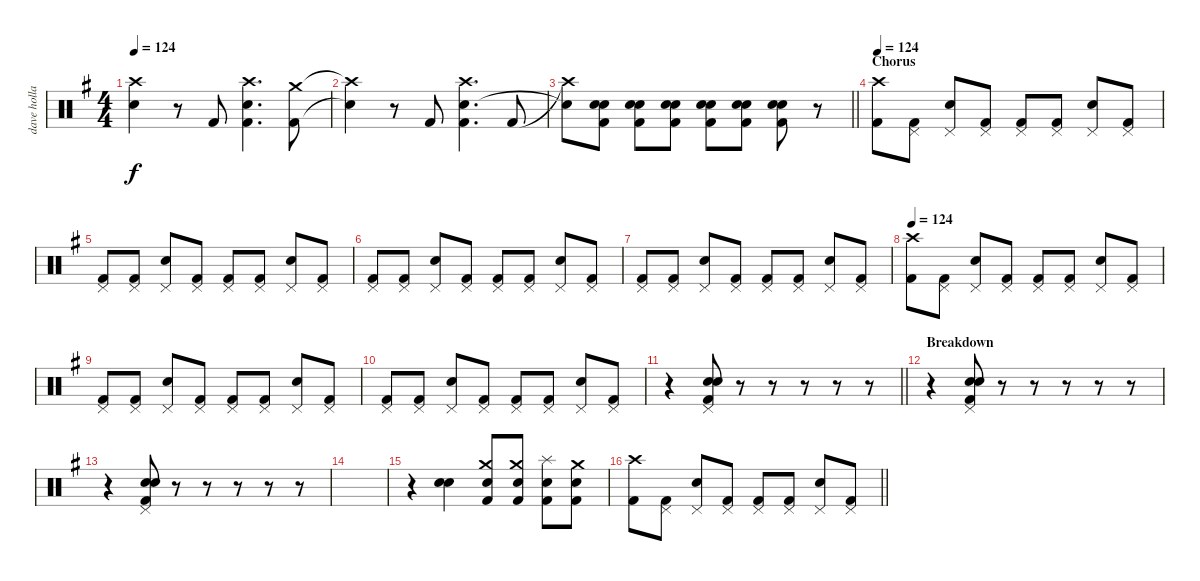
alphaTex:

\track ("dave holland" "dave holla") {instrument percussion}
\staff {score}
\articulation defaults
\ts (4 4)
\tempo 124
\clef neutral
\ks g
("Crash high (hit)"{t} "Snare (hit) 2"{t}).4{dy f} r.8 "Kick (hit) 2".8 ("Crash high (hit)" "Snare (hit) 2" "Kick (hit) 2").4{d} ("Crash medium (hit)" "Kick (hit) 2").8 |
("Crash high (hit)"{t} "Snare (hit) 2"{t}).4 r.8 "Kick (hit) 2".8 ("Crash high (hit)" "Snare (hit) 2" "Kick (hit) 2").4{d} "Kick (hit) 2".8 |
\barLineRight lightlight
("Crash high (hit)"{t} "Snare (hit) 2"{t}).8 ("Electric Snare (hit)" "Snare (hit) 2" "Kick (hit) 2").8 ("Electric Snare (hit)" "Snare (hit) 2" "Kick (hit) 2").8 ("Electric Snare (hit)" "Snare (hit) 2" "Kick (hit) 2").8 ("Electric Snare (hit)" "Snare (hit) 2" "Kick (hit) 2").8 ("Electric Snare (hit)" "Snare (hit) 2" "Kick (hit) 2").8 ("Electric Snare (hit)" "Snare (hit) 2" "Kick (hit) 2").8 r.8 |
\section ("" "Chorus")
\tempo 124
("Crash high (hit)" "Kick (hit) 2").8 ("Pedal Hi-Hat (hit)" "Kick (hit) 2").8 ("Pedal Hi-Hat (hit)" "Snare (hit) 2").8 ("Pedal Hi-Hat (hit)" "Kick (hit) 2").8 ("Pedal Hi-Hat (hit)" "Kick (hit) 2").8 ("Pedal Hi-Hat (hit)" "Kick (hit) 2").8 ("Pedal Hi-Hat (hit)" "Snare (hit) 2").8 ("Pedal Hi-Hat (hit)" "Kick (hit) 2").8 |
("Pedal Hi-Hat (hit)" "Kick (hit) 2").8 ("Pedal Hi-Hat (hit)" "Kick (hit) 2").8 ("Pedal Hi-Hat (hit)" "Snare (hit) 2").8 ("Pedal Hi-Hat (hit)" "Kick (hit) 2").8 ("Pedal Hi-Hat (hit)" "Kick (hit) 2").8 ("Pedal Hi-Hat (hit)" "Kick (hit) 2").8 ("Pedal Hi-Hat (hit)" "Snare (hit) 2").8 ("Pedal Hi-Hat (hit)" "Kick (hit) 2").8 |
("Pedal Hi-Hat (hit)" "Kick (hit) 2").8 ("Pedal Hi-Hat (hit)" "Kick (hit) 2").8 ("Pedal Hi-Hat (hit)" "Snare (hit) 2").8 ("Pedal Hi-Hat (hit)" "Kick (hit) 2").8 ("Pedal Hi-Hat (hit)" "Kick (hit) 2").8 ("Pedal Hi-Hat (hit)" "Kick (hit) 2").8 ("Pedal Hi-Hat (hit)" "Snare (hit) 2").8 ("Pedal Hi-Hat (hit)" "Kick (hit) 2").8 |
("Pedal Hi-Hat (hit)" "Kick (hit) 2").8 ("Pedal Hi-Hat (hit)" "Kick (hit) 2").8 ("Pedal Hi-Hat (hit)" "Snare (hit) 2").8 ("Pedal Hi-Hat (hit)" "Kick (hit) 2").8 ("Pedal Hi-Hat (hit)" "Kick (hit) 2").8 ("Pedal Hi-Hat (hit)" "Kick (hit) 2").8 ("Pedal Hi-Hat (hit)" "Snare (hit) 2").8 ("Pedal Hi-Hat (hit)" "Kick (hit) 2").8 |
\tempo 124
("Crash high (hit)" "Kick (hit) 2").8 ("Pedal Hi-Hat (hit)" "Kick (hit) 2").8 ("Pedal Hi-Hat (hit)" "Snare (hit) 2").8 ("Pedal Hi-Hat (hit)" "Kick (hit) 2").8 ("Pedal Hi-Hat (hit)" "Kick (hit) 2").8 ("Pedal Hi-Hat (hit)" "Kick (hit) 2").8 ("Pedal Hi-Hat (hit)" "Snare (hit) 2").8 ("Pedal Hi-Hat (hit)" "Kick (hit) 2").8 |
("Pedal Hi-Hat (hit)" "Kick (hit) 2").8 ("Pedal Hi-Hat (hit)" "Kick (hit) 2").8 ("Pedal Hi-Hat (hit)" "Snare (hit) 2").8 ("Pedal Hi-Hat (hit)" "Kick (hit) 2").8 ("Pedal Hi-Hat (hit)" "Kick (hit) 2").8 ("Pedal Hi-Hat (hit)" "Kick (hit) 2").8 ("Pedal Hi-Hat (hit)" "Snare (hit) 2").8 ("Pedal Hi-Hat (hit)" "Kick (hit) 2").8 |
("Pedal Hi-Hat (hit)" "Kick (hit) 2").8 ("Pedal Hi-Hat (hit)" "Kick (hit) 2").8 ("Pedal Hi-Hat (hit)" "Snare (hit) 2").8 ("Pedal Hi-Hat (hit)" "Kick (hit) 2").8 ("Pedal Hi-Hat (hit)" "Kick (hit) 2").8 ("Pedal Hi-Hat (hit)" "Kick (hit) 2").8 ("Pedal Hi-Hat (hit)" "Snare (hit) 2").8 ("Pedal Hi-Hat (hit)" "Kick (hit) 2").8 |
\barLineRight lightlight
r.4 ("Pedal Hi-Hat (hit)" "Electric Snare (hit)" "Snare (hit) 2" "Kick (hit) 2").8 r.8 r.8 r.8 r.8 r.8 |
\section ("" "Breakdown")
r.4 ("Pedal Hi-Hat (hit)" "Electric Snare (hit)" "Snare (hit) 2" "Kick (hit) 2").8 r.8 r.8 r.8 r.8 r.8 |
r.4 ("Pedal Hi-Hat (hit)" "Electric Snare (hit)" "Snare (hit) 2" "Kick (hit) 2").8 r.8 r.8 r.8 r.8 r.8 |
|
r.4 ("Snare (hit) 2" "Electric Snare (hit)").4 ("Crash medium (hit)" "Electric Snare (hit)" "Kick (hit) 2").8 ("Crash medium (hit)" "Electric Snare (hit)" "Kick (hit) 2").8 ("Splash (hit)" "Snare (hit) 2" "Kick (hit) 2").8 ("Crash medium (hit)" "Electric Snare (hit)" "Kick (hit) 2").8 |
\barLineRight lightlight
("Crash high (hit)" "Kick (hit) 2").8 ("Pedal Hi-Hat (hit)" "Kick (hit) 2").8 ("Pedal Hi-Hat (hit)" "Snare (hit) 2").8 ("Pedal Hi-Hat (hit)" "Kick (hit) 2").8 ("Pedal Hi-Hat (hit)" "Kick (hit) 2").8 ("Pedal Hi-Hat (hit)" "Kick (hit) 2").8 ("Pedal Hi-Hat (hit)" "Snare (hit) 2").8 ("Pedal Hi-Hat (hit)" "Kick (hit) 2").8
